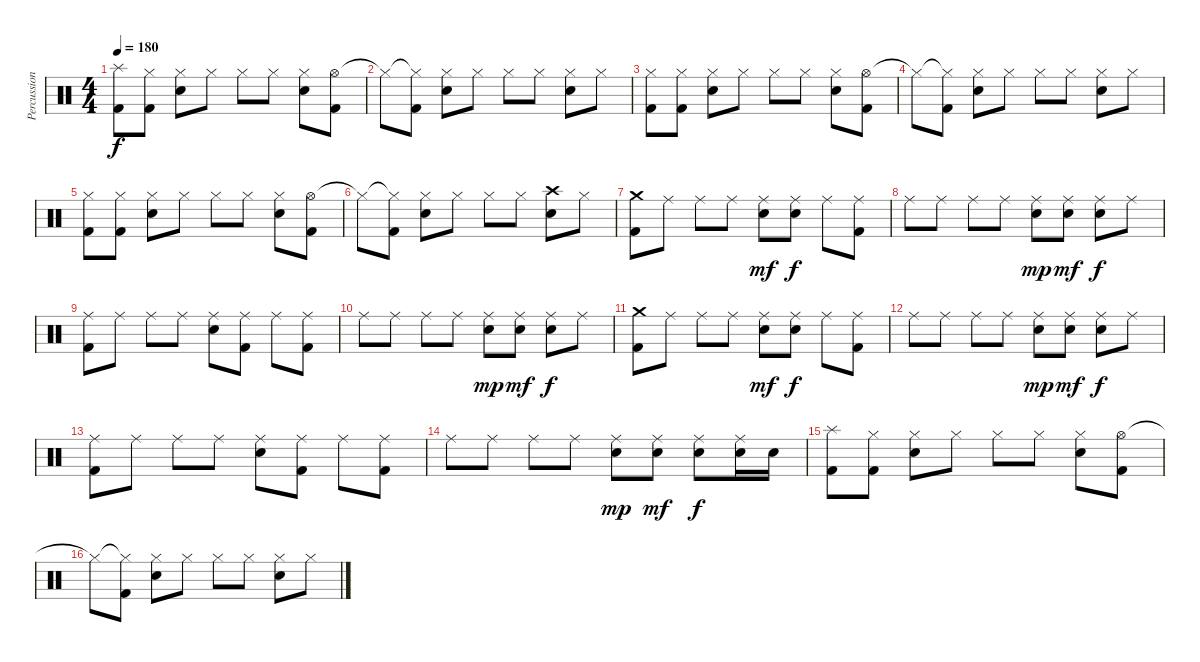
\track ("Percussion" "Percussion") {instrument percussion}
\staff {score}
\articulation defaults
\ts (4 4)
\tempo 180
\clef neutral
\ks c
("Splash (hit)" "Kick (hit) 2").8{dy f} ("Hi-Hat (closed)" "Kick (hit) 2").8 ("Hi-Hat (closed)" "Snare (hit) 2").8 "Hi-Hat (closed)".8 "Hi-Hat (closed)".8 "Hi-Hat (closed)".8 ("Hi-Hat (closed)" "Snare (hit) 2").8 ("Hi-Hat (open)" "Kick (hit) 2").8 |
"Hi-Hat (closed)"{t}.8 ("Hi-Hat (closed)"{t} "Kick (hit) 2").8 ("Hi-Hat (closed)" "Snare (hit) 2").8 "Hi-Hat (closed)".8 "Hi-Hat (closed)".8 "Hi-Hat (closed)".8 ("Hi-Hat (closed)" "Snare (hit) 2").8 "Hi-Hat (closed)".8 |
("Hi-Hat (closed)" "Kick (hit) 2").8 ("Hi-Hat (closed)" "Kick (hit) 2").8 ("Hi-Hat (closed)" "Snare (hit) 2").8 "Hi-Hat (closed)".8 "Hi-Hat (closed)".8 "Hi-Hat (closed)".8 ("Hi-Hat (closed)" "Snare (hit) 2").8 ("Hi-Hat (open)" "Kick (hit) 2").8 |
"Hi-Hat (closed)"{t}.8 ("Hi-Hat (closed)"{t} "Kick (hit) 2").8 ("Hi-Hat (closed)" "Snare (hit) 2").8 "Hi-Hat (closed)".8 "Hi-Hat (closed)".8 "Hi-Hat (closed)".8 ("Hi-Hat (closed)" "Snare (hit) 2").8 "Hi-Hat (closed)".8 |
("Hi-Hat (closed)" "Kick (hit) 2").8 ("Hi-Hat (closed)" "Kick (hit) 2").8 ("Hi-Hat (closed)" "Snare (hit) 2").8 "Hi-Hat (closed)".8 "Hi-Hat (closed)".8 "Hi-Hat (closed)".8 ("Hi-Hat (closed)" "Snare (hit) 2").8 ("Hi-Hat (open)" "Kick (hit) 2").8 |
"Hi-Hat (closed)"{t}.8 ("Hi-Hat (closed)"{t} "Kick (hit) 2").8 ("Hi-Hat (closed)" "Snare (hit) 2").8 "Hi-Hat (closed)".8 "Hi-Hat (closed)".8 "Hi-Hat (closed)".8 ("Crash high (hit)" "Snare (hit) 2").8 "Hi-Hat (closed)".8 |
("Crash medium (hit)" "Kick (hit) 2").8 "Ride (middle)".8 "Ride (middle)".8 "Ride (middle)".8 ("Ride (middle)" "Snare (hit) 2").8{dy mf} ("Ride (middle)" "Snare (hit) 2").8{dy f} "Ride (middle)".8 ("Ride (middle)" "Kick (hit) 2").8 |
"Ride (middle)".8 "Ride (middle)".8 "Ride (middle)".8 "Ride (middle)".8 ("Ride (middle)" "Snare (hit) 2").8{dy mp} ("Ride (middle)" "Snare (hit) 2").8{dy mf} ("Ride (middle)" "Snare (hit) 2").8{dy f} "Ride (middle)".8 |
("Ride (middle)" "Kick (hit) 2").8 "Ride (middle)".8 "Ride (middle)".8 "Ride (middle)".8 ("Ride (middle)" "Snare (hit) 2").8 ("Ride (middle)" "Kick (hit) 2").8 "Ride (middle)".8 ("Ride (middle)" "Kick (hit) 2").8 |
"Ride (middle)".8 "Ride (middle)".8 "Ride (middle)".8 "Ride (middle)".8 ("Ride (middle)" "Snare (hit) 2").8{dy mp} ("Ride (middle)" "Snare (hit) 2").8{dy mf} ("Ride (middle)" "Snare (hit) 2").8{dy f} "Ride (middle)".8 |
("Crash medium (hit)" "Kick (hit) 2").8 "Ride (middle)".8 "Ride (middle)".8 "Ride (middle)".8 ("Ride (middle)" "Snare (hit) 2").8{dy mf} ("Ride (middle)" "Snare (hit) 2").8{dy f} "Ride (middle)".8 ("Ride (middle)" "Kick (hit) 2").8 |
"Ride (middle)".8 "Ride (middle)".8 "Ride (middle)".8 "Ride (middle)".8 ("Ride (middle)" "Snare (hit) 2").8{dy mp} ("Ride (middle)" "Snare (hit) 2").8{dy mf} ("Ride (middle)" "Snare (hit) 2").8{dy f} "Ride (middle)".8 |
("Ride (middle)" "Kick (hit) 2").8 "Ride (middle)".8 "Ride (middle)".8 "Ride (middle)".8 ("Ride (middle)" "Snare (hit) 2").8 ("Ride (middle)" "Kick (hit) 2").8 "Ride (middle)".8 ("Ride (middle)" "Kick (hit) 2").8 |
"Ride (middle)".8 "Ride (middle)".8 "Ride (middle)".8 "Ride (middle)".8 ("Ride (middle)" "Snare (hit) 2").8{dy mp} ("Ride (middle)" "Snare (hit) 2").8{dy mf} ("Ride (middle)" "Snare (hit) 2").8{dy f} ("Ride (middle)" "Snare (hit) 2").16 "Snare (hit) 2".16 |
("Splash (hit)" "Kick (hit) 2").8 ("Hi-Hat (closed)" "Kick (hit) 2").8 ("Hi-Hat (closed)" "Snare (hit) 2").8 "Hi-Hat (closed)".8 "Hi-Hat (closed)".8 "Hi-Hat (closed)".8 ("Hi-Hat (closed)" "Snare (hit) 2").8 ("Hi-Hat (open)" "Kick (hit) 2").8 |
"Hi-Hat (closed)"{t}.8 ("Hi-Hat (closed)"{t} "Kick (hit) 2").8 ("Hi-Hat (closed)" "Snare (hit) 2").8 "Hi-Hat (closed)".8 "Hi-Hat (closed)".8 "Hi-Hat (closed)".8 ("Hi-Hat (closed)" "Snare (hit) 2").8 "Hi-Hat (closed)".8
